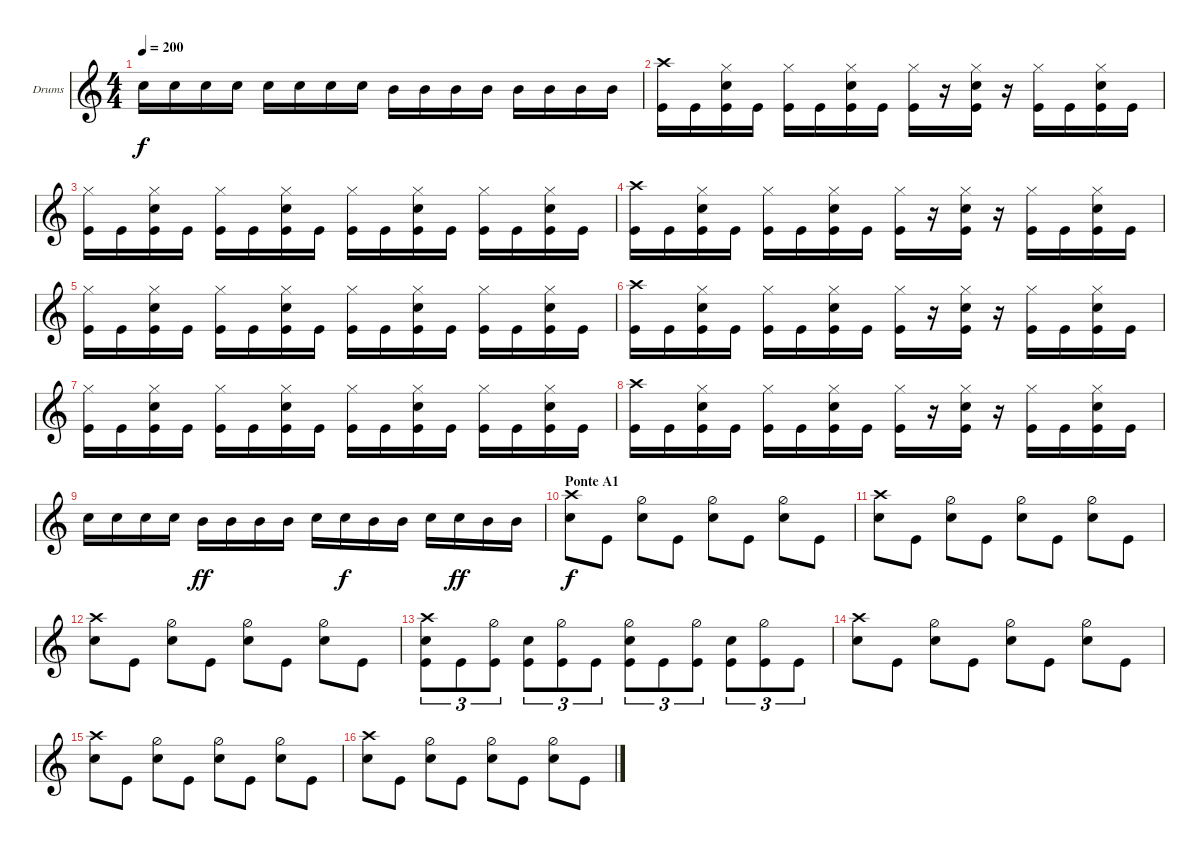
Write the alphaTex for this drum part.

\defaultSystemsLayout 4
\bracketExtendMode groupsimilarinstruments
\firstSystemTrackNameOrientation horizontal
\otherSystemsTrackNameOrientation horizontal
\track ("Drums" "Drums") {instrument percussion}
\staff {score}
\articulation defaults
\ts (4 4)
\tempo 200
\clef g2
\ks c "Snare (hit) 2".16{dy f} "Snare (hit) 2".16 "Snare (hit) 2".16 "Snare (hit) 2".16 "Snare (hit) 2".16 "Snare (hit) 2".16 "Snare (hit) 2".16 "Snare (hit) 2".16 "Mid Tom (hit)".16 "Mid Tom (hit)".16 "Mid Tom (hit)".16 "Mid Tom (hit)".16 "Mid Tom (hit)".16 "Mid Tom (hit)".16 "Mid Tom (hit)".16 "Mid Tom (hit)".16
|
("Kick (hit)" "Crash high (hit)").16 "Kick (hit)".16 ("Snare (hit) 2" "Hi-Hat (closed)" "Kick (hit)").16 "Kick (hit)".16 ("Hi-Hat (closed)" "Kick (hit)").16 "Kick (hit)".16 ("Snare (hit) 2" "Hi-Hat (closed)" "Kick (hit)").16 "Kick (hit)".16 ("Hi-Hat (closed)" "Kick (hit)").16 r.16 ("Snare (hit) 2" "Hi-Hat (closed)" "Kick (hit)").16 r.16 ("Hi-Hat (closed)" "Kick (hit)").16 "Kick (hit)".16 ("Snare (hit) 2" "Hi-Hat (closed)" "Kick (hit)").16 "Kick (hit)".16 |
("Kick (hit)" "Hi-Hat (closed)").16 "Kick (hit)".16 ("Snare (hit) 2" "Hi-Hat (closed)" "Kick (hit)").16 "Kick (hit)".16 ("Hi-Hat (closed)" "Kick (hit)").16 "Kick (hit)".16 ("Snare (hit) 2" "Hi-Hat (closed)" "Kick (hit)").16 "Kick (hit)".16 ("Hi-Hat (closed)" "Kick (hit)").16 "Kick (hit)".16 ("Snare (hit) 2" "Hi-Hat (closed)" "Kick (hit)").16 "Kick (hit)".16 ("Hi-Hat (closed)" "Kick (hit)").16 "Kick (hit)".16 ("Snare (hit) 2" "Hi-Hat (closed)" "Kick (hit)").16 "Kick (hit)".16 |
("Kick (hit)" "Crash high (hit)").16 "Kick (hit)".16 ("Snare (hit) 2" "Hi-Hat (closed)" "Kick (hit)").16 "Kick (hit)".16 ("Hi-Hat (closed)" "Kick (hit)").16 "Kick (hit)".16 ("Snare (hit) 2" "Hi-Hat (closed)" "Kick (hit)").16 "Kick (hit)".16 ("Hi-Hat (closed)" "Kick (hit)").16 r.16 ("Snare (hit) 2" "Hi-Hat (closed)" "Kick (hit)").16 r.16 ("Hi-Hat (closed)" "Kick (hit)").16 "Kick (hit)".16 ("Snare (hit) 2" "Hi-Hat (closed)" "Kick (hit)").16 "Kick (hit)".16 |
("Kick (hit)" "Hi-Hat (closed)").16 "Kick (hit)".16 ("Snare (hit) 2" "Hi-Hat (closed)" "Kick (hit)").16 "Kick (hit)".16 ("Hi-Hat (closed)" "Kick (hit)").16 "Kick (hit)".16 ("Snare (hit) 2" "Hi-Hat (closed)" "Kick (hit)").16 "Kick (hit)".16 ("Hi-Hat (closed)" "Kick (hit)").16 "Kick (hit)".16 ("Snare (hit) 2" "Hi-Hat (closed)" "Kick (hit)").16 "Kick (hit)".16 ("Hi-Hat (closed)" "Kick (hit)").16 "Kick (hit)".16 ("Snare (hit) 2" "Hi-Hat (closed)" "Kick (hit)").16 "Kick (hit)".16 |
("Kick (hit)" "Crash high (hit)").16 "Kick (hit)".16 ("Snare (hit) 2" "Hi-Hat (closed)" "Kick (hit)").16 "Kick (hit)".16 ("Hi-Hat (closed)" "Kick (hit)").16 "Kick (hit)".16 ("Snare (hit) 2" "Hi-Hat (closed)" "Kick (hit)").16 "Kick (hit)".16 ("Hi-Hat (closed)" "Kick (hit)").16 r.16 ("Snare (hit) 2" "Hi-Hat (closed)" "Kick (hit)").16 r.16 ("Hi-Hat (closed)" "Kick (hit)").16 "Kick (hit)".16 ("Snare (hit) 2" "Hi-Hat (closed)" "Kick (hit)").16 "Kick (hit)".16 |
("Kick (hit)" "Hi-Hat (closed)").16 "Kick (hit)".16 ("Snare (hit) 2" "Hi-Hat (closed)" "Kick (hit)").16 "Kick (hit)".16 ("Hi-Hat (closed)" "Kick (hit)").16 "Kick (hit)".16 ("Snare (hit) 2" "Hi-Hat (closed)" "Kick (hit)").16 "Kick (hit)".16 ("Hi-Hat (closed)" "Kick (hit)").16 "Kick (hit)".16 ("Snare (hit) 2" "Hi-Hat (closed)" "Kick (hit)").16 "Kick (hit)".16 ("Hi-Hat (closed)" "Kick (hit)").16 "Kick (hit)".16 ("Snare (hit) 2" "Hi-Hat (closed)" "Kick (hit)").16 "Kick (hit)".16 |
("Kick (hit)" "Crash high (hit)").16 "Kick (hit)".16 ("Snare (hit) 2" "Hi-Hat (closed)" "Kick (hit)").16 "Kick (hit)".16 ("Hi-Hat (closed)" "Kick (hit)").16 "Kick (hit)".16 ("Snare (hit) 2" "Hi-Hat (closed)" "Kick (hit)").16 "Kick (hit)".16 ("Hi-Hat (closed)" "Kick (hit)").16 r.16 ("Snare (hit) 2" "Hi-Hat (closed)" "Kick (hit)").16 r.16 ("Hi-Hat (closed)" "Kick (hit)").16 "Kick (hit)".16 ("Snare (hit) 2" "Hi-Hat (closed)" "Kick (hit)").16 "Kick (hit)".16 |
"Snare (hit) 2".16 "Snare (hit) 2".16 "Snare (hit) 2".16 "Snare (hit) 2".16 "Mid Tom (hit)".16{dy ff} "Mid Tom (hit)".16 "Mid Tom (hit)".16 "Mid Tom (hit)".16 "Snare (hit) 2".16 "Snare (hit) 2".16{dy f} "Mid Tom (hit)".16 "Mid Tom (hit)".16 "Snare (hit) 2".16 "Snare (hit) 2".16{dy ff} "Mid Tom (hit)".16 "Mid Tom (hit)".16 |
\section ("" "Ponte A1")
("Snare (hit) 2" "Crash high (hit)").8{dy f} "Kick (hit)".8 ("Snare (hit) 2" "Hi-Hat (half)").8 "Kick (hit)".8 ("Snare (hit) 2" "Hi-Hat (half)").8 "Kick (hit)".8 ("Snare (hit) 2" "Hi-Hat (half)").8 "Kick (hit)".8 |
("Snare (hit) 2" "Crash high (hit)").8 "Kick (hit)".8 ("Snare (hit) 2" "Hi-Hat (half)").8 "Kick (hit)".8 ("Snare (hit) 2" "Hi-Hat (half)").8 "Kick (hit)".8 ("Snare (hit) 2" "Hi-Hat (half)").8 "Kick (hit)".8 |
("Snare (hit) 2" "Crash high (hit)").8 "Kick (hit)".8 ("Snare (hit) 2" "Hi-Hat (half)").8 "Kick (hit)".8 ("Snare (hit) 2" "Hi-Hat (half)").8 "Kick (hit)".8 ("Snare (hit) 2" "Hi-Hat (half)").8 "Kick (hit)".8 |
("Snare (hit) 2" "Crash high (hit)" "Kick (hit)").8{tu (3 2)} "Kick (hit)".8{tu (3 2)} ("Hi-Hat (half)" "Kick (hit)").8{tu (3 2)} ("Kick (hit)" "Snare (hit) 2").8{tu (3 2)} ("Hi-Hat (half)" "Kick (hit)").8{tu (3 2)} "Kick (hit)".8{tu (3 2)} ("Snare (hit) 2" "Kick (hit)" "Hi-Hat (half)").8{tu (3 2)} "Kick (hit)".8{tu (3 2)} ("Hi-Hat (half)" "Kick (hit)").8{tu (3 2)} ("Kick (hit)" "Snare (hit) 2").8{tu (3 2)} ("Hi-Hat (half)" "Kick (hit)").8{tu (3 2)} "Kick (hit)".8{tu (3 2)} |
("Snare (hit) 2" "Crash high (hit)").8 "Kick (hit)".8 ("Snare (hit) 2" "Hi-Hat (half)").8 "Kick (hit)".8 ("Snare (hit) 2" "Hi-Hat (half)").8 "Kick (hit)".8 ("Snare (hit) 2" "Hi-Hat (half)").8 "Kick (hit)".8 |
("Snare (hit) 2" "Crash high (hit)").8 "Kick (hit)".8 ("Snare (hit) 2" "Hi-Hat (half)").8 "Kick (hit)".8 ("Snare (hit) 2" "Hi-Hat (half)").8 "Kick (hit)".8 ("Snare (hit) 2" "Hi-Hat (half)").8 "Kick (hit)".8 |
("Snare (hit) 2" "Crash high (hit)").8 "Kick (hit)".8 ("Snare (hit) 2" "Hi-Hat (half)").8 "Kick (hit)".8 ("Snare (hit) 2" "Hi-Hat (half)").8 "Kick (hit)".8 ("Snare (hit) 2" "Hi-Hat (half)").8 "Kick (hit)".8
